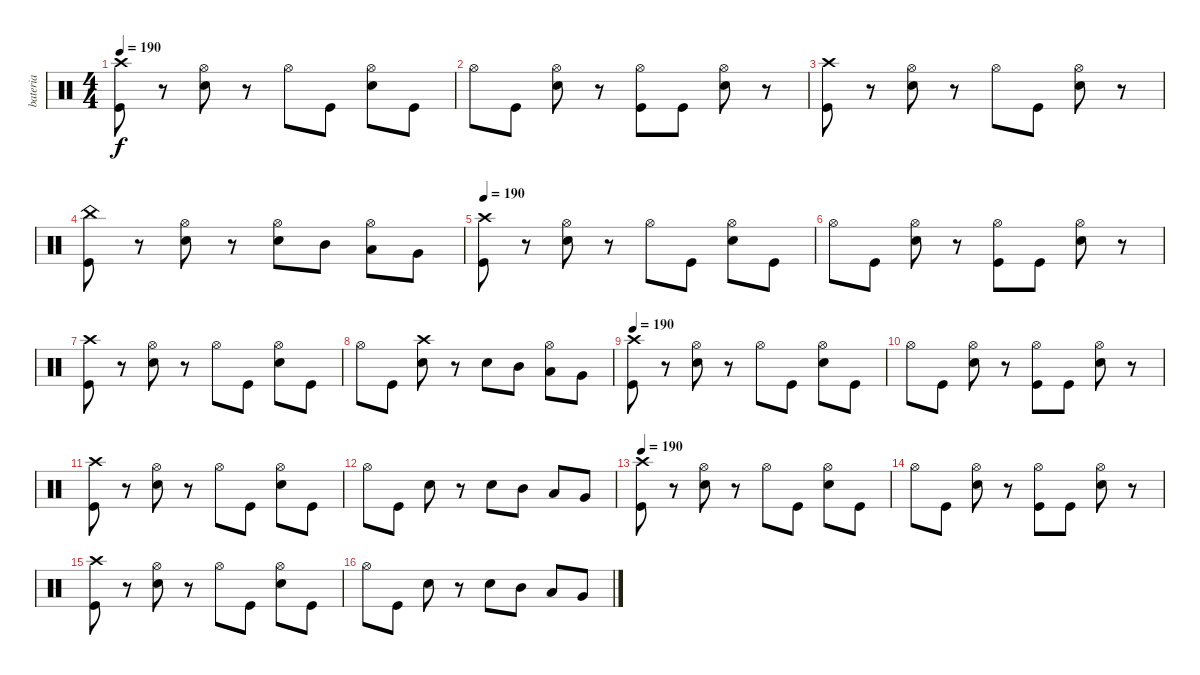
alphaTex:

\track ("bateria" "bateria") {instrument percussion}
\staff {score}
\articulation defaults
\ts (4 4)
\tempo 190
\clef neutral
\ks c
("Crash high (hit)" "Kick (hit)").8{dy f} r.8 ("Hi-Hat (open)" "Electric Snare (hit)").8 r.8 "Hi-Hat (open)".8 "Kick (hit)".8 ("Hi-Hat (open)" "Electric Snare (hit)").8 "Kick (hit)".8 |
"Hi-Hat (open)".8 "Kick (hit)".8 ("Hi-Hat (open)" "Electric Snare (hit)").8 r.8 ("Hi-Hat (open)" "Kick (hit)").8 "Kick (hit)".8 ("Hi-Hat (open)" "Electric Snare (hit)").8 r.8 |
("Crash high (hit)" "Kick (hit)").8 r.8 ("Hi-Hat (open)" "Electric Snare (hit)").8 r.8 "Hi-Hat (open)".8 "Kick (hit)".8 ("Hi-Hat (open)" "Electric Snare (hit)").8 r.8 |
("China (hit)" "Kick (hit)").8 r.8 ("Hi-Hat (open)" "Electric Snare (hit)").8 r.8 ("Hi-Hat (open)" "Electric Snare (hit)").8 "Mid Tom (hit)".8 ("Hi-Hat (open)" "Low Tom (hit)").8 "Very Low Tom (hit)".8 |
\tempo 190
("Crash high (hit)" "Kick (hit)").8 r.8 ("Hi-Hat (open)" "Electric Snare (hit)").8 r.8 "Hi-Hat (open)".8 "Kick (hit)".8 ("Hi-Hat (open)" "Electric Snare (hit)").8 "Kick (hit)".8 |
"Hi-Hat (open)".8 "Kick (hit)".8 ("Hi-Hat (open)" "Electric Snare (hit)").8 r.8 ("Hi-Hat (open)" "Kick (hit)").8 "Kick (hit)".8 ("Hi-Hat (open)" "Electric Snare (hit)").8 r.8 |
("Crash high (hit)" "Kick (hit)").8 r.8 ("Hi-Hat (open)" "Electric Snare (hit)").8 r.8 "Hi-Hat (open)".8 "Kick (hit)".8 ("Hi-Hat (open)" "Electric Snare (hit)").8 "Kick (hit)".8 |
"Hi-Hat (open)".8 "Kick (hit)".8 ("Crash high (hit)" "Electric Snare (hit)").8 r.8 "Electric Snare (hit)".8 "Mid Tom (hit)".8 ("Hi-Hat (open)" "Low Tom (hit)").8 "Very Low Tom (hit)".8 |
\tempo 190
("Crash high (hit)" "Kick (hit)").8 r.8 ("Hi-Hat (open)" "Electric Snare (hit)").8 r.8 "Hi-Hat (open)".8 "Kick (hit)".8 ("Hi-Hat (open)" "Electric Snare (hit)").8 "Kick (hit)".8 |
"Hi-Hat (open)".8 "Kick (hit)".8 ("Hi-Hat (open)" "Electric Snare (hit)").8 r.8 ("Hi-Hat (open)" "Kick (hit)").8 "Kick (hit)".8 ("Hi-Hat (open)" "Electric Snare (hit)").8 r.8 |
("Crash high (hit)" "Kick (hit)").8 r.8 ("Hi-Hat (open)" "Electric Snare (hit)").8 r.8 "Hi-Hat (open)".8 "Kick (hit)".8 ("Hi-Hat (open)" "Electric Snare (hit)").8 "Kick (hit)".8 |
"Hi-Hat (open)".8 "Kick (hit)".8 "Electric Snare (hit)".8 r.8 "Electric Snare (hit)".8 "Mid Tom (hit)".8 "Low Tom (hit)".8 "Very Low Tom (hit)".8 |
\tempo 190
("Crash high (hit)" "Kick (hit)").8 r.8 ("Hi-Hat (open)" "Electric Snare (hit)").8 r.8 "Hi-Hat (open)".8 "Kick (hit)".8 ("Hi-Hat (open)" "Electric Snare (hit)").8 "Kick (hit)".8 |
"Hi-Hat (open)".8 "Kick (hit)".8 ("Hi-Hat (open)" "Electric Snare (hit)").8 r.8 ("Hi-Hat (open)" "Kick (hit)").8 "Kick (hit)".8 ("Hi-Hat (open)" "Electric Snare (hit)").8 r.8 |
("Crash high (hit)" "Kick (hit)").8 r.8 ("Hi-Hat (open)" "Electric Snare (hit)").8 r.8 "Hi-Hat (open)".8 "Kick (hit)".8 ("Hi-Hat (open)" "Electric Snare (hit)").8 "Kick (hit)".8 |
"Hi-Hat (open)".8 "Kick (hit)".8 "Electric Snare (hit)".8 r.8 "Electric Snare (hit)".8 "Mid Tom (hit)".8 "Low Tom (hit)".8 "Very Low Tom (hit)".8
